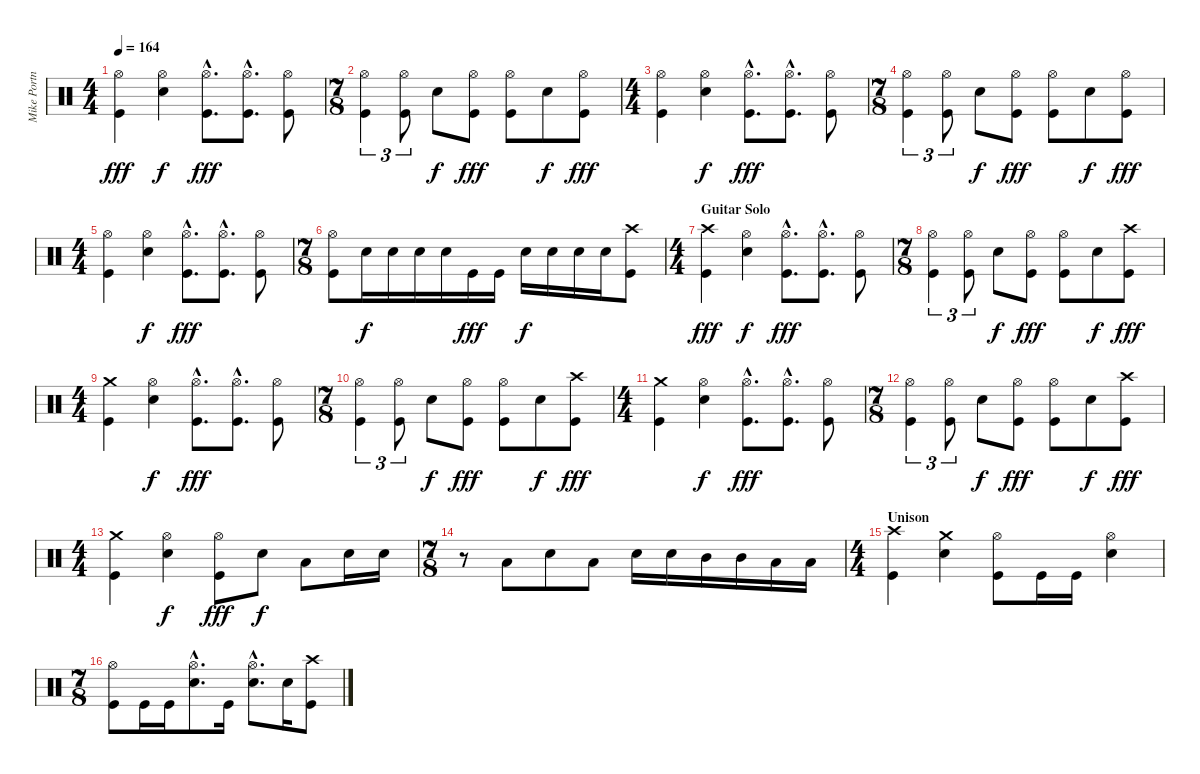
\track ("Mike Portnoy" "Mike Portn") {instrument percussion}
\staff {score}
\articulation defaults
\ts (4 4)
\tempo 164
\clef neutral
\ks c
("Hi-Hat (open)" "Kick (hit)").4{dy fff} ("Hi-Hat (open)" "Electric Snare (hit)").4{dy f} ("Hi-Hat (open)"{hac} "Kick (hit)"{hac}).8{d dy fff} ("Hi-Hat (open)"{hac} "Kick (hit)"{hac}).8{d} ("Hi-Hat (open)" "Kick (hit)").8 |
\ts (7 8)
("Hi-Hat (open)" "Kick (hit)").4{tu (3 2)} ("Hi-Hat (open)" "Kick (hit)").8{tu (3 2)} "Electric Snare (hit)".8{dy f} ("Hi-Hat (open)" "Kick (hit)").8{dy fff} ("Hi-Hat (open)" "Kick (hit)").8 "Electric Snare (hit)".8{dy f} ("Hi-Hat (open)" "Kick (hit)").8{dy fff} |
\ts (4 4)
("Hi-Hat (open)" "Kick (hit)").4 ("Hi-Hat (open)" "Electric Snare (hit)").4{dy f} ("Hi-Hat (open)"{hac} "Kick (hit)"{hac}).8{d dy fff} ("Hi-Hat (open)"{hac} "Kick (hit)"{hac}).8{d} ("Hi-Hat (open)" "Kick (hit)").8 |
\ts (7 8)
("Hi-Hat (open)" "Kick (hit)").4{tu (3 2)} ("Hi-Hat (open)" "Kick (hit)").8{tu (3 2)} "Electric Snare (hit)".8{dy f} ("Hi-Hat (open)" "Kick (hit)").8{dy fff} ("Hi-Hat (open)" "Kick (hit)").8 "Electric Snare (hit)".8{dy f} ("Hi-Hat (open)" "Kick (hit)").8{dy fff} |
\ts (4 4)
("Hi-Hat (open)" "Kick (hit)").4 ("Hi-Hat (open)" "Electric Snare (hit)").4{dy f} ("Hi-Hat (open)"{hac} "Kick (hit)"{hac}).8{d dy fff} ("Hi-Hat (open)"{hac} "Kick (hit)"{hac}).8{d} ("Hi-Hat (open)" "Kick (hit)").8 |
\ts (7 8)
("Hi-Hat (open)" "Kick (hit)").8 "Electric Snare (hit)".16{dy f} "Electric Snare (hit)".16 "Electric Snare (hit)".16 "Electric Snare (hit)".16 "Kick (hit)".16{dy fff} "Kick (hit)".16 "Electric Snare (hit)".16{dy f} "Electric Snare (hit)".16 "Electric Snare (hit)".16 "Electric Snare (hit)".16 ("Crash high (hit)" "Kick (hit)").8 |
\ts (4 4)
\section ("" "Guitar Solo ")
("Crash high (hit)" "Kick (hit)").4{dy fff} ("Hi-Hat (open)" "Electric Snare (hit)").4{dy f} ("Hi-Hat (open)"{hac} "Kick (hit)"{hac}).8{d dy fff} ("Hi-Hat (open)"{hac} "Kick (hit)"{hac}).8{d} ("Hi-Hat (open)" "Kick (hit)").8 |
\ts (7 8)
("Hi-Hat (open)" "Kick (hit)").4{tu (3 2)} ("Hi-Hat (open)" "Kick (hit)").8{tu (3 2)} "Electric Snare (hit)".8{dy f} ("Hi-Hat (open)" "Kick (hit)").8{dy fff} ("Hi-Hat (open)" "Kick (hit)").8 "Electric Snare (hit)".8{dy f} ("Crash high (hit)" "Kick (hit)").8{dy fff} |
\ts (4 4)
("Crash medium (hit)" "Kick (hit)").4 ("Hi-Hat (open)" "Electric Snare (hit)").4{dy f} ("Hi-Hat (open)"{hac} "Kick (hit)"{hac}).8{d dy fff} ("Hi-Hat (open)"{hac} "Kick (hit)"{hac}).8{d} ("Hi-Hat (open)" "Kick (hit)").8 |
\ts (7 8)
("Hi-Hat (open)" "Kick (hit)").4{tu (3 2)} ("Hi-Hat (open)" "Kick (hit)").8{tu (3 2)} "Electric Snare (hit)".8{dy f} ("Hi-Hat (open)" "Kick (hit)").8{dy fff} ("Hi-Hat (open)" "Kick (hit)").8 "Electric Snare (hit)".8{dy f} ("Crash high (hit)" "Kick (hit)").8{dy fff} |
\ts (4 4)
("Crash medium (hit)" "Kick (hit)").4 ("Hi-Hat (open)" "Electric Snare (hit)").4{dy f} ("Hi-Hat (open)"{hac} "Kick (hit)"{hac}).8{d dy fff} ("Hi-Hat (open)"{hac} "Kick (hit)"{hac}).8{d} ("Hi-Hat (open)" "Kick (hit)").8 |
\ts (7 8)
("Hi-Hat (open)" "Kick (hit)").4{tu (3 2)} ("Hi-Hat (open)" "Kick (hit)").8{tu (3 2)} "Electric Snare (hit)".8{dy f} ("Hi-Hat (open)" "Kick (hit)").8{dy fff} ("Hi-Hat (open)" "Kick (hit)").8 "Electric Snare (hit)".8{dy f} ("Crash high (hit)" "Kick (hit)").8{dy fff} |
\ts (4 4)
("Crash medium (hit)" "Kick (hit)").4 ("Hi-Hat (open)" "Electric Snare (hit)").4{dy f} ("Hi-Hat (open)" "Kick (hit)").8{dy fff} "Electric Snare (hit)".8{dy f} "Low Tom (hit)".8 "Electric Snare (hit)".16 "Electric Snare (hit)".16 |
\ts (7 8)
r.8 "Low Tom (hit)".8 "Electric Snare (hit)".8 "Low Tom (hit)".8 "Electric Snare (hit)".16 "Electric Snare (hit)".16 "Mid Tom (hit)".16 "Mid Tom (hit)".16 "Low Tom (hit)".16 "Low Tom (hit)".16 |
\ts (4 4)
\section ("" "Unison")
("Crash high (hit)" "Kick (hit)").4 ("Crash medium (hit)" "Electric Snare (hit)").4 ("Hi-Hat (open)" "Kick (hit)").8 "Kick (hit)".16 "Kick (hit)".16 ("Hi-Hat (open)" "Electric Snare (hit)").4 |
\ts (7 8)
("Hi-Hat (open)" "Kick (hit)").8 "Kick (hit)".16 "Kick (hit)".16 ("Hi-Hat (open)"{hac} "Electric Snare (hit)"{hac}).8{d} "Kick (hit)".16 ("Hi-Hat (open)"{hac} "Electric Snare (hit)"{hac}).8{d} "Electric Snare (hit)".16 ("Crash high (hit)" "Kick (hit)").8
